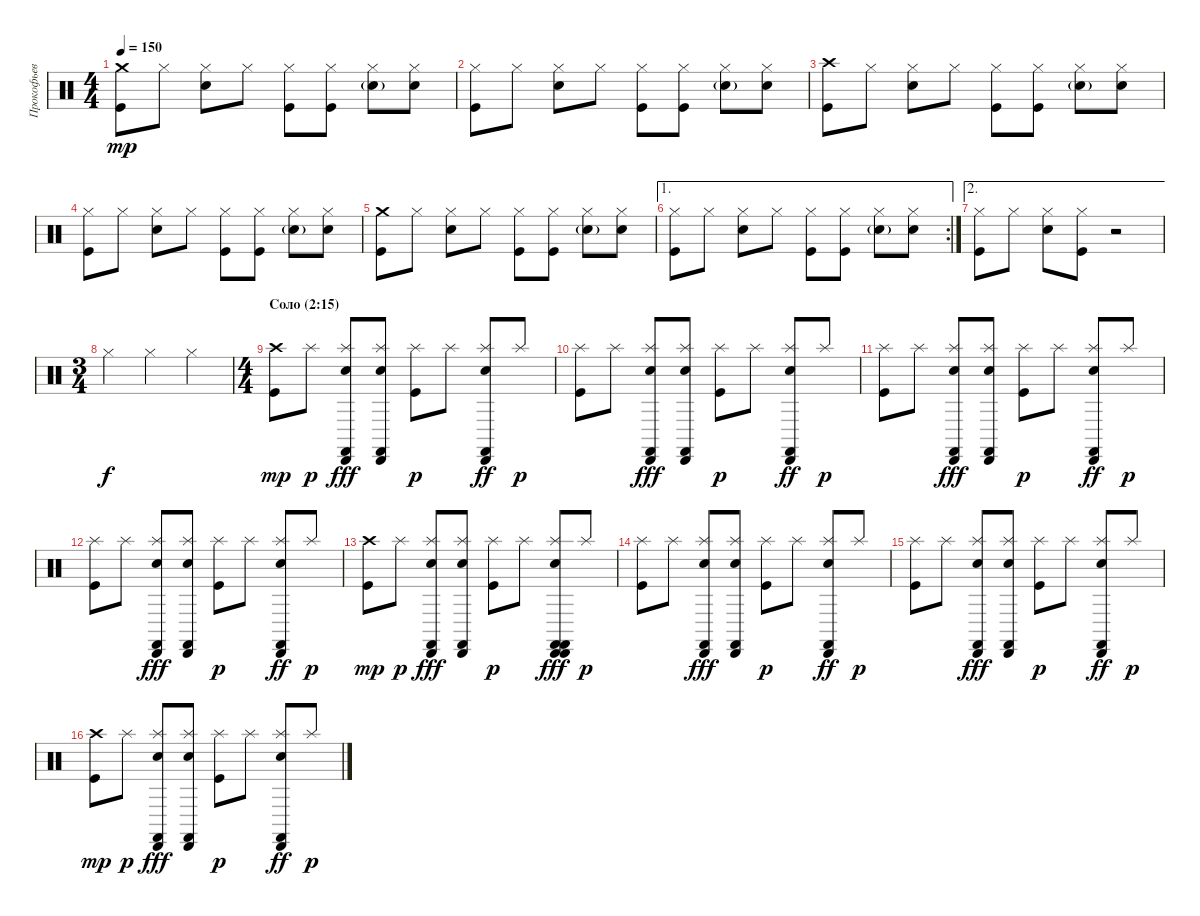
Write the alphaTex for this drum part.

\track ("Прокофьев (Барабаны)" "Прокофьев ") {instrument percussion}
\staff {score}
\articulation defaults
\ts (4 4)
\tempo 150
\clef neutral
\ks c
("Crash medium (hit)" "Kick (hit)").8{dy mp} "Hi-Hat (closed)".8 ("Hi-Hat (closed)" "Electric Snare (hit)").8 "Hi-Hat (closed)".8 ("Hi-Hat (closed)" "Kick (hit)").8 ("Hi-Hat (closed)" "Kick (hit)").8 ("Hi-Hat (closed)" "Electric Snare (hit)"{g}).8 ("Hi-Hat (closed)" "Electric Snare (hit)").8 |
("Hi-Hat (closed)" "Kick (hit)").8 "Hi-Hat (closed)".8 ("Hi-Hat (closed)" "Electric Snare (hit)").8 "Hi-Hat (closed)".8 ("Hi-Hat (closed)" "Kick (hit)").8 ("Hi-Hat (closed)" "Kick (hit)").8 ("Hi-Hat (closed)" "Electric Snare (hit)"{g}).8 ("Hi-Hat (closed)" "Electric Snare (hit)").8 |
("Crash high (hit)" "Kick (hit)").8 "Hi-Hat (closed)".8 ("Hi-Hat (closed)" "Electric Snare (hit)").8 "Hi-Hat (closed)".8 ("Hi-Hat (closed)" "Kick (hit)").8 ("Hi-Hat (closed)" "Kick (hit)").8 ("Hi-Hat (closed)" "Electric Snare (hit)"{g}).8 ("Hi-Hat (closed)" "Electric Snare (hit)").8 |
("Hi-Hat (closed)" "Kick (hit)").8 "Hi-Hat (closed)".8 ("Hi-Hat (closed)" "Electric Snare (hit)").8 "Hi-Hat (closed)".8 ("Hi-Hat (closed)" "Kick (hit)").8 ("Hi-Hat (closed)" "Kick (hit)").8 ("Hi-Hat (closed)" "Electric Snare (hit)"{g}).8 ("Hi-Hat (closed)" "Electric Snare (hit)").8 |
("Crash medium (hit)" "Kick (hit)").8 "Hi-Hat (closed)".8 ("Hi-Hat (closed)" "Electric Snare (hit)").8 "Hi-Hat (closed)".8 ("Hi-Hat (closed)" "Kick (hit)").8 ("Hi-Hat (closed)" "Kick (hit)").8 ("Hi-Hat (closed)" "Electric Snare (hit)"{g}).8 ("Hi-Hat (closed)" "Electric Snare (hit)").8 |
\ae 1
\rc 2
("Hi-Hat (closed)" "Kick (hit)").8 "Hi-Hat (closed)".8 ("Hi-Hat (closed)" "Electric Snare (hit)").8 "Hi-Hat (closed)".8 ("Hi-Hat (closed)" "Kick (hit)").8 ("Hi-Hat (closed)" "Kick (hit)").8 ("Hi-Hat (closed)" "Electric Snare (hit)"{g}).8 ("Hi-Hat (closed)" "Electric Snare (hit)").8 |
\ae 2
("Hi-Hat (closed)" "Kick (hit)").8 "Hi-Hat (closed)".8 ("Hi-Hat (closed)" "Electric Snare (hit)").8 ("Hi-Hat (closed)" "Kick (hit)").8 r.2 |
\ts (3 4)
"Hi-Hat (closed)".4{dy f} "Hi-Hat (closed)".4 "Hi-Hat (closed)".4 |
\ts (4 4)
\section ("" "Соло (2:15)")
("Crash high (hit)" "Kick (hit)").8{dy mp} "Splash (hit)".8{dy p} ("Splash (hit)" "Castanets (hit)" "Electric Snare (hit)" "Cabasa (hit)").8{dy fff} ("Splash (hit)" "Castanets (hit)" "Electric Snare (hit)" "Cabasa (hit)").8 ("Splash (hit)" "Kick (hit)").8{dy p} "Splash (hit)".8 ("Splash (hit)" "Castanets (hit)" "Electric Snare (hit)" "Cabasa (hit)").8{dy ff} "Splash (hit)".8{dy p} |
("Splash (hit)" "Kick (hit)").8 "Splash (hit)".8 ("Splash (hit)" "Castanets (hit)" "Electric Snare (hit)" "Cabasa (hit)").8{dy fff} ("Splash (hit)" "Castanets (hit)" "Electric Snare (hit)" "Cabasa (hit)").8 ("Splash (hit)" "Kick (hit)").8{dy p} "Splash (hit)".8 ("Splash (hit)" "Castanets (hit)" "Electric Snare (hit)" "Cabasa (hit)").8{dy ff} "Splash (hit)".8{dy p} |
("Splash (hit)" "Kick (hit)").8 "Splash (hit)".8 ("Splash (hit)" "Castanets (hit)" "Electric Snare (hit)" "Cabasa (hit)").8{dy fff} ("Splash (hit)" "Castanets (hit)" "Electric Snare (hit)" "Cabasa (hit)").8 ("Splash (hit)" "Kick (hit)").8{dy p} "Splash (hit)".8 ("Splash (hit)" "Castanets (hit)" "Electric Snare (hit)" "Cabasa (hit)").8{dy ff} "Splash (hit)".8{dy p} |
("Splash (hit)" "Kick (hit)").8 "Splash (hit)".8 ("Splash (hit)" "Castanets (hit)" "Electric Snare (hit)" "Cabasa (hit)").8{dy fff} ("Splash (hit)" "Castanets (hit)" "Electric Snare (hit)" "Cabasa (hit)").8 ("Splash (hit)" "Kick (hit)").8{dy p} "Splash (hit)".8 ("Splash (hit)" "Castanets (hit)" "Electric Snare (hit)" "Cabasa (hit)").8{dy ff} "Splash (hit)".8{dy p} |
("Crash high (hit)" "Kick (hit)").8{dy mp} "Splash (hit)".8{dy p} ("Splash (hit)" "Castanets (hit)" "Electric Snare (hit)" "Cabasa (hit)").8{dy fff} ("Splash (hit)" "Castanets (hit)" "Electric Snare (hit)" "Cabasa (hit)").8 ("Splash (hit)" "Kick (hit)").8{dy p} "Splash (hit)".8 ("Splash (hit)" "Castanets (hit)" "Castanets (hit)" "Electric Snare (hit)" "Cabasa (hit)" "Cabasa (hit)").8{dy fff} "Splash (hit)".8{dy p} |
("Splash (hit)" "Kick (hit)").8 "Splash (hit)".8 ("Splash (hit)" "Castanets (hit)" "Electric Snare (hit)" "Cabasa (hit)").8{dy fff} ("Splash (hit)" "Castanets (hit)" "Electric Snare (hit)" "Cabasa (hit)").8 ("Splash (hit)" "Kick (hit)").8{dy p} "Splash (hit)".8 ("Splash (hit)" "Castanets (hit)" "Electric Snare (hit)" "Cabasa (hit)").8{dy ff} "Splash (hit)".8{dy p} |
("Splash (hit)" "Kick (hit)").8 "Splash (hit)".8 ("Splash (hit)" "Castanets (hit)" "Electric Snare (hit)" "Cabasa (hit)").8{dy fff} ("Splash (hit)" "Castanets (hit)" "Electric Snare (hit)" "Cabasa (hit)").8 ("Splash (hit)" "Kick (hit)").8{dy p} "Splash (hit)".8 ("Splash (hit)" "Castanets (hit)" "Electric Snare (hit)" "Cabasa (hit)").8{dy ff} "Splash (hit)".8{dy p} |
("Crash high (hit)" "Kick (hit)").8{dy mp} "Splash (hit)".8{dy p} ("Splash (hit)" "Castanets (hit)" "Electric Snare (hit)" "Cabasa (hit)").8{dy fff} ("Splash (hit)" "Castanets (hit)" "Electric Snare (hit)" "Cabasa (hit)").8 ("Splash (hit)" "Kick (hit)").8{dy p} "Splash (hit)".8 ("Splash (hit)" "Castanets (hit)" "Electric Snare (hit)" "Cabasa (hit)").8{dy ff} "Splash (hit)".8{dy p}
